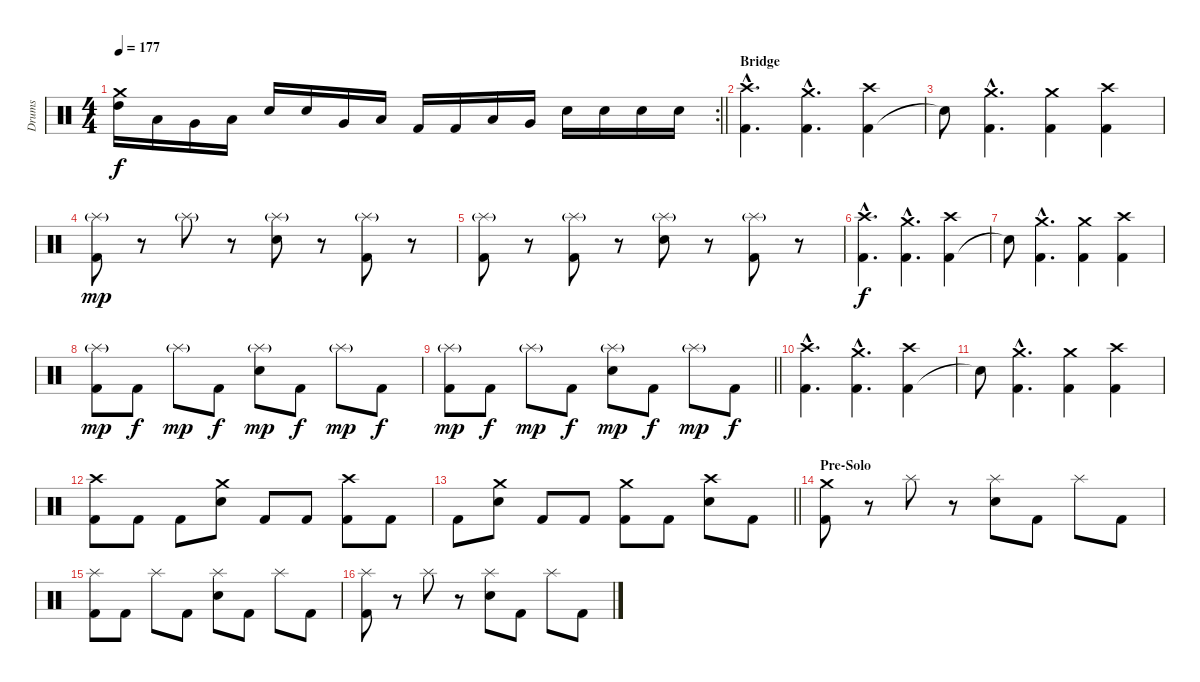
\track ("Drums" "Drums") {instrument percussion}
\staff {score}
\articulation defaults
\rc 2
\ts (4 4)
\tempo 177
\clef neutral
\barLineRight lightlight
\ks c
("High Tom (hit)" "Crash medium (hit)").16{dy f} "Low Tom (hit)".16 "Very Low Tom (hit)".16 "Low Floor Tom (hit)".16 "Snare (hit) 2".16 "Snare (hit) 2".16 "Very Low Tom (hit)".16 "Low Floor Tom (hit)".16 "Kick (hit) 2".16 "Kick (hit) 2".16 "Low Tom (hit)".16 "Very Low Tom (hit)".16 "Snare (hit) 2".16 "Snare (hit) 2".16 "Snare (hit) 2".16 "Snare (hit) 2".16 |
\section ("" "Bridge")
("Kick (hit) 2"{hac} "Crash high (hit)"{hac}).4{d} ("Kick (hit) 2"{hac} "Crash medium (hit)"{hac}).4{d} ("Kick (hit) 2" "Crash high (hit)").4 |
"Snare (hit)"{t}.8 ("Kick (hit) 2"{hac} "Crash medium (hit)"{hac}).4{d} ("Kick (hit) 2" "Crash medium (hit)").4 ("Kick (hit) 2" "Crash high (hit)").4 |
("Kick (hit) 2" "Splash (hit)"{g}).8{dy mp} r.8 "Splash (hit)"{g}.8 r.8 ("Snare (hit) 2" "Splash (hit)"{g}).8 r.8 ("Kick (hit) 2" "Splash (hit)"{g}).8 r.8 |
("Kick (hit) 2" "Splash (hit)"{g}).8 r.8 ("Kick (hit) 2" "Splash (hit)"{g}).8 r.8 ("Snare (hit) 2" "Splash (hit)"{g}).8 r.8 ("Kick (hit) 2" "Splash (hit)"{g}).8 r.8 |
("Kick (hit) 2"{hac} "Crash high (hit)"{hac}).4{d dy f} ("Kick (hit) 2"{hac} "Crash medium (hit)"{hac}).4{d} ("Kick (hit) 2" "Crash high (hit)").4 |
"Snare (hit)"{t}.8 ("Kick (hit) 2"{hac} "Crash medium (hit)"{hac}).4{d} ("Kick (hit) 2" "Crash medium (hit)").4 ("Kick (hit) 2" "Crash high (hit)").4 |
("Kick (hit) 2" "Splash (hit)"{g}).8{dy mp} "Kick (hit) 2".8{dy f} "Splash (hit)"{g}.8{dy mp} "Kick (hit) 2".8{dy f} ("Snare (hit) 2" "Splash (hit)"{g}).8{dy mp} "Kick (hit) 2".8{dy f} "Splash (hit)"{g}.8{dy mp} "Kick (hit) 2".8{dy f} |
\barLineRight lightlight
("Kick (hit) 2" "Splash (hit)"{g}).8{dy mp} "Kick (hit) 2".8{dy f} "Splash (hit)"{g}.8{dy mp} "Kick (hit) 2".8{dy f} ("Snare (hit) 2" "Splash (hit)"{g}).8{dy mp} "Kick (hit) 2".8{dy f} "Splash (hit)"{g}.8{dy mp} "Kick (hit) 2".8{dy f} |
\section ("" "")
("Kick (hit) 2"{hac} "Crash high (hit)"{hac}).4{d} ("Kick (hit) 2"{hac} "Crash medium (hit)"{hac}).4{d} ("Kick (hit) 2" "Crash high (hit)").4 |
"Snare (hit)"{t}.8 ("Kick (hit) 2"{hac} "Crash medium (hit)"{hac}).4{d} ("Kick (hit) 2" "Crash medium (hit)").4 ("Kick (hit) 2" "Crash high (hit)").4 |
("Kick (hit) 2" "Crash high (hit)").8 "Kick (hit) 2".8 "Kick (hit) 2".8 ("Snare (hit) 2" "Crash medium (hit)").8 "Kick (hit) 2".8 "Kick (hit) 2".8 ("Kick (hit) 2" "Crash high (hit)").8 "Kick (hit) 2".8 |
\barLineRight lightlight "Kick (hit) 2".8
("Snare (hit) 2" "Crash medium (hit)").8 "Kick (hit) 2".8 "Kick (hit) 2".8 ("Kick (hit) 2" "Crash medium (hit)").8 "Kick (hit) 2".8 ("Snare (hit) 2" "Crash high (hit)").8 "Kick (hit) 2".8 |
\section ("" "Pre-Solo")
("Kick (hit) 2" "Crash medium (hit)").8 r.8 "Splash (hit)".8 r.8 ("Snare (hit) 2" "Splash (hit)").8 "Kick (hit) 2".8 "Splash (hit)".8 "Kick (hit) 2".8 |
("Kick (hit) 2" "Splash (hit)").8 "Kick (hit) 2".8 "Splash (hit)".8 "Kick (hit) 2".8 ("Snare (hit) 2" "Splash (hit)").8 "Kick (hit) 2".8 "Splash (hit)".8 "Kick (hit) 2".8 |
("Kick (hit) 2" "Splash (hit)").8 r.8 "Splash (hit)".8 r.8 ("Snare (hit) 2" "Splash (hit)").8 "Kick (hit) 2".8 "Splash (hit)".8 "Kick (hit) 2".8
